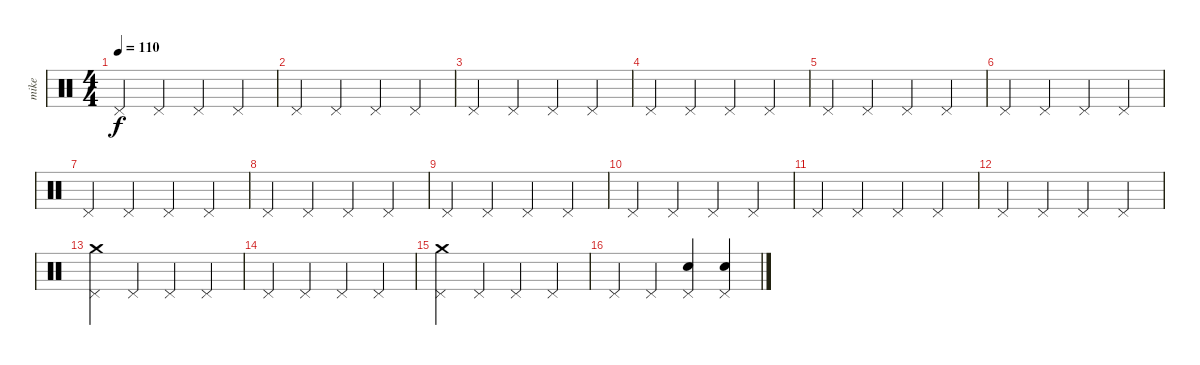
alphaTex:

\track ("mike" "mike") {instrument percussion}
\staff {score}
\articulation defaults
\ts (4 4)
\tempo 110
\clef neutral
\ks c "Pedal Hi-Hat (hit)".4{dy f} "Pedal Hi-Hat (hit)".4 "Pedal Hi-Hat (hit)".4 "Pedal Hi-Hat (hit)".4
|
"Pedal Hi-Hat (hit)".4 "Pedal Hi-Hat (hit)".4 "Pedal Hi-Hat (hit)".4 "Pedal Hi-Hat (hit)".4 |
"Pedal Hi-Hat (hit)".4 "Pedal Hi-Hat (hit)".4 "Pedal Hi-Hat (hit)".4 "Pedal Hi-Hat (hit)".4 |
"Pedal Hi-Hat (hit)".4 "Pedal Hi-Hat (hit)".4 "Pedal Hi-Hat (hit)".4 "Pedal Hi-Hat (hit)".4 |
"Pedal Hi-Hat (hit)".4 "Pedal Hi-Hat (hit)".4 "Pedal Hi-Hat (hit)".4 "Pedal Hi-Hat (hit)".4 |
"Pedal Hi-Hat (hit)".4 "Pedal Hi-Hat (hit)".4 "Pedal Hi-Hat (hit)".4 "Pedal Hi-Hat (hit)".4 |
"Pedal Hi-Hat (hit)".4 "Pedal Hi-Hat (hit)".4 "Pedal Hi-Hat (hit)".4 "Pedal Hi-Hat (hit)".4 |
"Pedal Hi-Hat (hit)".4 "Pedal Hi-Hat (hit)".4 "Pedal Hi-Hat (hit)".4 "Pedal Hi-Hat (hit)".4 |
"Pedal Hi-Hat (hit)".4 "Pedal Hi-Hat (hit)".4 "Pedal Hi-Hat (hit)".4 "Pedal Hi-Hat (hit)".4 |
"Pedal Hi-Hat (hit)".4 "Pedal Hi-Hat (hit)".4 "Pedal Hi-Hat (hit)".4 "Pedal Hi-Hat (hit)".4 |
"Pedal Hi-Hat (hit)".4 "Pedal Hi-Hat (hit)".4 "Pedal Hi-Hat (hit)".4 "Pedal Hi-Hat (hit)".4 |
"Pedal Hi-Hat (hit)".4 "Pedal Hi-Hat (hit)".4 "Pedal Hi-Hat (hit)".4 "Pedal Hi-Hat (hit)".4 |
("Pedal Hi-Hat (hit)" "Crash medium (hit)").4 "Pedal Hi-Hat (hit)".4 "Pedal Hi-Hat (hit)".4 "Pedal Hi-Hat (hit)".4 |
"Pedal Hi-Hat (hit)".4 "Pedal Hi-Hat (hit)".4 "Pedal Hi-Hat (hit)".4 "Pedal Hi-Hat (hit)".4 |
("Pedal Hi-Hat (hit)" "Crash medium (hit)").4 "Pedal Hi-Hat (hit)".4 "Pedal Hi-Hat (hit)".4 "Pedal Hi-Hat (hit)".4 |
"Pedal Hi-Hat (hit)".4 "Pedal Hi-Hat (hit)".4 ("Pedal Hi-Hat (hit)" "Electric Snare (hit)").4 ("Pedal Hi-Hat (hit)" "Electric Snare (hit)").4
